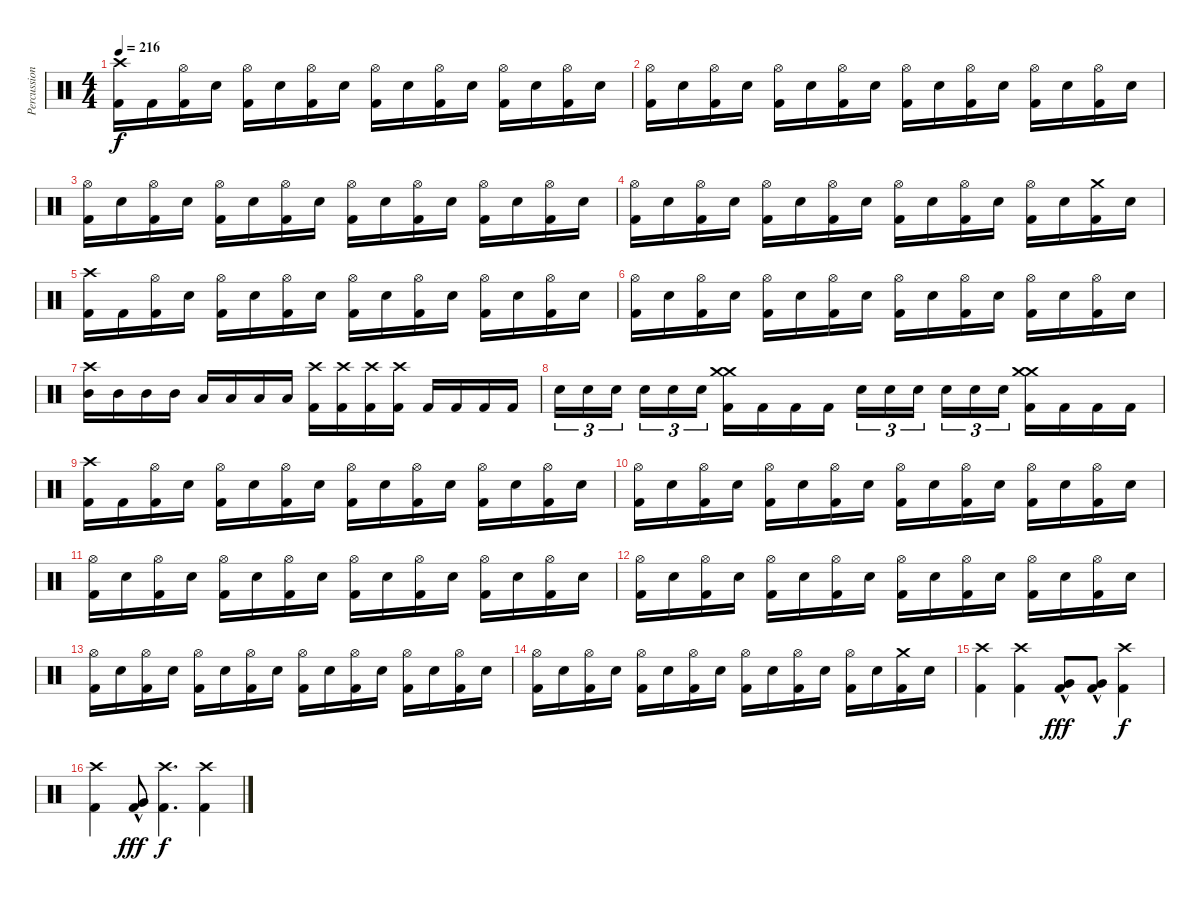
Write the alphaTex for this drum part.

\track ("Percussions" "Percussion") {instrument percussion}
\staff {score}
\articulation defaults
\ts (4 4)
\tempo 216
\clef neutral
\ks c
("Crash high (hit)" "Kick (hit) 2").16{dy f} "Kick (hit) 2".16 ("Hi-Hat (open)" "Kick (hit) 2").16 "Electric Snare (hit)".16 ("Hi-Hat (open)" "Kick (hit) 2").16 "Electric Snare (hit)".16 ("Hi-Hat (open)" "Kick (hit) 2").16 "Electric Snare (hit)".16 ("Hi-Hat (open)" "Kick (hit) 2").16 "Electric Snare (hit)".16 ("Hi-Hat (open)" "Kick (hit) 2").16 "Electric Snare (hit)".16 ("Hi-Hat (open)" "Kick (hit) 2").16 "Electric Snare (hit)".16 ("Hi-Hat (open)" "Kick (hit) 2").16 "Electric Snare (hit)".16 |
("Hi-Hat (open)" "Kick (hit) 2").16 "Electric Snare (hit)".16 ("Hi-Hat (open)" "Kick (hit) 2").16 "Electric Snare (hit)".16 ("Hi-Hat (open)" "Kick (hit) 2").16 "Electric Snare (hit)".16 ("Hi-Hat (open)" "Kick (hit) 2").16 "Electric Snare (hit)".16 ("Hi-Hat (open)" "Kick (hit) 2").16 "Electric Snare (hit)".16 ("Hi-Hat (open)" "Kick (hit) 2").16 "Electric Snare (hit)".16 ("Hi-Hat (open)" "Kick (hit) 2").16 "Electric Snare (hit)".16 ("Hi-Hat (open)" "Kick (hit) 2").16 "Electric Snare (hit)".16 |
("Hi-Hat (open)" "Kick (hit) 2").16 "Electric Snare (hit)".16 ("Hi-Hat (open)" "Kick (hit) 2").16 "Electric Snare (hit)".16 ("Hi-Hat (open)" "Kick (hit) 2").16 "Electric Snare (hit)".16 ("Hi-Hat (open)" "Kick (hit) 2").16 "Electric Snare (hit)".16 ("Hi-Hat (open)" "Kick (hit) 2").16 "Electric Snare (hit)".16 ("Hi-Hat (open)" "Kick (hit) 2").16 "Electric Snare (hit)".16 ("Hi-Hat (open)" "Kick (hit) 2").16 "Electric Snare (hit)".16 ("Hi-Hat (open)" "Kick (hit) 2").16 "Electric Snare (hit)".16 |
("Hi-Hat (open)" "Kick (hit) 2").16 "Electric Snare (hit)".16 ("Hi-Hat (open)" "Kick (hit) 2").16 "Electric Snare (hit)".16 ("Hi-Hat (open)" "Kick (hit) 2").16 "Electric Snare (hit)".16 ("Hi-Hat (open)" "Kick (hit) 2").16 "Electric Snare (hit)".16 ("Hi-Hat (open)" "Kick (hit) 2").16 "Electric Snare (hit)".16 ("Hi-Hat (open)" "Kick (hit) 2").16 "Electric Snare (hit)".16 ("Hi-Hat (open)" "Kick (hit) 2").16 "Electric Snare (hit)".16 ("Crash medium (hit)" "Kick (hit) 2").16 "Electric Snare (hit)".16 |
("Crash high (hit)" "Kick (hit) 2").16 "Kick (hit) 2".16 ("Hi-Hat (open)" "Kick (hit) 2").16 "Electric Snare (hit)".16 ("Hi-Hat (open)" "Kick (hit) 2").16 "Electric Snare (hit)".16 ("Hi-Hat (open)" "Kick (hit) 2").16 "Electric Snare (hit)".16 ("Hi-Hat (open)" "Kick (hit) 2").16 "Electric Snare (hit)".16 ("Hi-Hat (open)" "Kick (hit) 2").16 "Electric Snare (hit)".16 ("Hi-Hat (open)" "Kick (hit) 2").16 "Electric Snare (hit)".16 ("Hi-Hat (open)" "Kick (hit) 2").16 "Electric Snare (hit)".16 |
("Hi-Hat (open)" "Kick (hit) 2").16 "Electric Snare (hit)".16 ("Hi-Hat (open)" "Kick (hit) 2").16 "Electric Snare (hit)".16 ("Hi-Hat (open)" "Kick (hit) 2").16 "Electric Snare (hit)".16 ("Hi-Hat (open)" "Kick (hit) 2").16 "Electric Snare (hit)".16 ("Hi-Hat (open)" "Kick (hit) 2").16 "Electric Snare (hit)".16 ("Hi-Hat (open)" "Kick (hit) 2").16 "Electric Snare (hit)".16 ("Hi-Hat (open)" "Kick (hit) 2").16 "Electric Snare (hit)".16 ("Hi-Hat (open)" "Kick (hit) 2").16 "Electric Snare (hit)".16 |
("Crash high (hit)" "Mid Tom (hit)").16 "Mid Tom (hit)".16 "Mid Tom (hit)".16 "Mid Tom (hit)".16 "Low Tom (hit)".16 "Low Tom (hit)".16 "Low Tom (hit)".16 "Low Tom (hit)".16 ("Crash high (hit)" "Kick (hit) 2").16 ("Crash high (hit)" "Kick (hit) 2").16 ("Crash high (hit)" "Kick (hit) 2").16 ("Crash high (hit)" "Kick (hit) 2").16 "Kick (hit) 2".16 "Kick (hit) 2".16 "Kick (hit) 2".16 "Kick (hit) 2".16 |
"Electric Snare (hit)".16{tu (3 2)} "Electric Snare (hit)".16{tu (3 2)} "Electric Snare (hit)".16{tu (3 2) beam splitsecondary} "Electric Snare (hit)".16{tu (3 2)} "Electric Snare (hit)".16{tu (3 2)} "Electric Snare (hit)".16{tu (3 2)} ("Crash medium (hit)" "Crash medium (hit)" "Kick (hit) 2").16 "Kick (hit) 2".16 "Kick (hit) 2".16 "Kick (hit) 2".16 "Electric Snare (hit)".16{tu (3 2)} "Electric Snare (hit)".16{tu (3 2)} "Electric Snare (hit)".16{tu (3 2) beam splitsecondary} "Electric Snare (hit)".16{tu (3 2)} "Electric Snare (hit)".16{tu (3 2)} "Electric Snare (hit)".16{tu (3 2)} ("Crash medium (hit)" "Crash medium (hit)" "Kick (hit) 2").16 "Kick (hit) 2".16 "Kick (hit) 2".16 "Kick (hit) 2".16 |
("Crash high (hit)" "Kick (hit) 2").16 "Kick (hit) 2".16 ("Hi-Hat (open)" "Kick (hit) 2").16 "Electric Snare (hit)".16 ("Hi-Hat (open)" "Kick (hit) 2").16 "Electric Snare (hit)".16 ("Hi-Hat (open)" "Kick (hit) 2").16 "Electric Snare (hit)".16 ("Hi-Hat (open)" "Kick (hit) 2").16 "Electric Snare (hit)".16 ("Hi-Hat (open)" "Kick (hit) 2").16 "Electric Snare (hit)".16 ("Hi-Hat (open)" "Kick (hit) 2").16 "Electric Snare (hit)".16 ("Hi-Hat (open)" "Kick (hit) 2").16 "Electric Snare (hit)".16 |
("Hi-Hat (open)" "Kick (hit) 2").16 "Electric Snare (hit)".16 ("Hi-Hat (open)" "Kick (hit) 2").16 "Electric Snare (hit)".16 ("Hi-Hat (open)" "Kick (hit) 2").16 "Electric Snare (hit)".16 ("Hi-Hat (open)" "Kick (hit) 2").16 "Electric Snare (hit)".16 ("Hi-Hat (open)" "Kick (hit) 2").16 "Electric Snare (hit)".16 ("Hi-Hat (open)" "Kick (hit) 2").16 "Electric Snare (hit)".16 ("Hi-Hat (open)" "Kick (hit) 2").16 "Electric Snare (hit)".16 ("Hi-Hat (open)" "Kick (hit) 2").16 "Electric Snare (hit)".16 |
("Hi-Hat (open)" "Kick (hit) 2").16 "Electric Snare (hit)".16 ("Hi-Hat (open)" "Kick (hit) 2").16 "Electric Snare (hit)".16 ("Hi-Hat (open)" "Kick (hit) 2").16 "Electric Snare (hit)".16 ("Hi-Hat (open)" "Kick (hit) 2").16 "Electric Snare (hit)".16 ("Hi-Hat (open)" "Kick (hit) 2").16 "Electric Snare (hit)".16 ("Hi-Hat (open)" "Kick (hit) 2").16 "Electric Snare (hit)".16 ("Hi-Hat (open)" "Kick (hit) 2").16 "Electric Snare (hit)".16 ("Hi-Hat (open)" "Kick (hit) 2").16 "Electric Snare (hit)".16 |
("Hi-Hat (open)" "Kick (hit) 2").16 "Electric Snare (hit)".16 ("Hi-Hat (open)" "Kick (hit) 2").16 "Electric Snare (hit)".16 ("Hi-Hat (open)" "Kick (hit) 2").16 "Electric Snare (hit)".16 ("Hi-Hat (open)" "Kick (hit) 2").16 "Electric Snare (hit)".16 ("Hi-Hat (open)" "Kick (hit) 2").16 "Electric Snare (hit)".16 ("Hi-Hat (open)" "Kick (hit) 2").16 "Electric Snare (hit)".16 ("Hi-Hat (open)" "Kick (hit) 2").16 "Electric Snare (hit)".16 ("Hi-Hat (open)" "Kick (hit) 2").16 "Electric Snare (hit)".16 |
("Hi-Hat (open)" "Kick (hit) 2").16 "Electric Snare (hit)".16 ("Hi-Hat (open)" "Kick (hit) 2").16 "Electric Snare (hit)".16 ("Hi-Hat (open)" "Kick (hit) 2").16 "Electric Snare (hit)".16 ("Hi-Hat (open)" "Kick (hit) 2").16 "Electric Snare (hit)".16 ("Hi-Hat (open)" "Kick (hit) 2").16 "Electric Snare (hit)".16 ("Hi-Hat (open)" "Kick (hit) 2").16 "Electric Snare (hit)".16 ("Hi-Hat (open)" "Kick (hit) 2").16 "Electric Snare (hit)".16 ("Hi-Hat (open)" "Kick (hit) 2").16 "Electric Snare (hit)".16 |
("Hi-Hat (open)" "Kick (hit) 2").16 "Electric Snare (hit)".16 ("Hi-Hat (open)" "Kick (hit) 2").16 "Electric Snare (hit)".16 ("Hi-Hat (open)" "Kick (hit) 2").16 "Electric Snare (hit)".16 ("Hi-Hat (open)" "Kick (hit) 2").16 "Electric Snare (hit)".16 ("Hi-Hat (open)" "Kick (hit) 2").16 "Electric Snare (hit)".16 ("Hi-Hat (open)" "Kick (hit) 2").16 "Electric Snare (hit)".16 ("Hi-Hat (open)" "Kick (hit) 2").16 "Electric Snare (hit)".16 ("Crash medium (hit)" "Kick (hit) 2").16 "Electric Snare (hit)".16 |
("Crash high (hit)" "Kick (hit) 2").4 ("Crash high (hit)" "Kick (hit) 2").4 ("Very Low Tom (hit)"{hac} "Kick (hit) 2").8{dy fff} ("Very Low Tom (hit)"{hac} "Kick (hit) 2").8 ("Crash high (hit)" "Kick (hit) 2").4{dy f} |
("Crash high (hit)" "Kick (hit) 2").4 ("Very Low Tom (hit)"{hac} "Kick (hit) 2"{hac}).8{dy fff} ("Crash high (hit)" "Kick (hit) 2").4{d dy f} ("Crash high (hit)" "Kick (hit) 2").4
